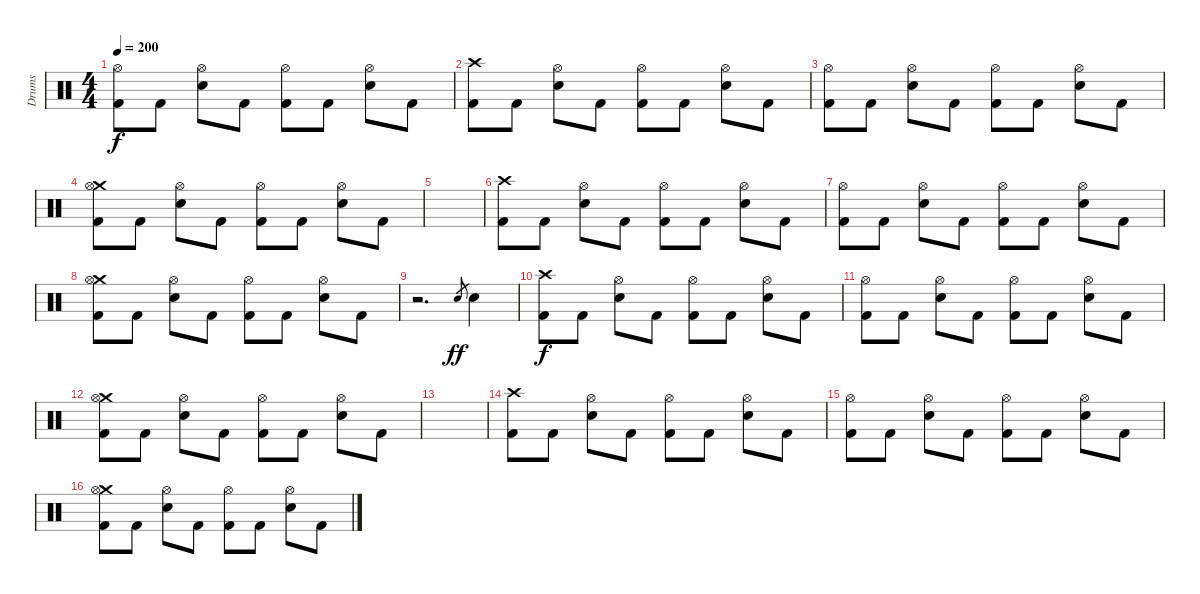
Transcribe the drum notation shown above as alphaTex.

\track ("Drums" "Drums") {instrument percussion}
\staff {score}
\articulation defaults
\ts (4 4)
\tempo 200
\clef neutral
\ks c
("Hi-Hat (open)" "Kick (hit) 2").8{dy f} "Kick (hit) 2".8 ("Hi-Hat (open)" "Snare (hit) 2").8 "Kick (hit) 2".8 ("Hi-Hat (open)" "Kick (hit) 2").8 "Kick (hit) 2".8 ("Hi-Hat (open)" "Snare (hit) 2").8 "Kick (hit) 2".8 |
("Crash high (hit)" "Kick (hit) 2").8 "Kick (hit) 2".8 ("Hi-Hat (open)" "Snare (hit) 2").8 "Kick (hit) 2".8 ("Hi-Hat (open)" "Kick (hit) 2").8 "Kick (hit) 2".8 ("Hi-Hat (open)" "Snare (hit) 2").8 "Kick (hit) 2".8 |
("Hi-Hat (open)" "Kick (hit) 2").8 "Kick (hit) 2".8 ("Hi-Hat (open)" "Snare (hit) 2").8 "Kick (hit) 2".8 ("Hi-Hat (open)" "Kick (hit) 2").8 "Kick (hit) 2".8 ("Hi-Hat (open)" "Snare (hit) 2").8 "Kick (hit) 2".8 |
("Crash medium (hit)" "Hi-Hat (open)" "Kick (hit) 2").8 "Kick (hit) 2".8 ("Hi-Hat (open)" "Snare (hit) 2").8 "Kick (hit) 2".8 ("Hi-Hat (open)" "Kick (hit) 2").8 "Kick (hit) 2".8 ("Hi-Hat (open)" "Snare (hit) 2").8 "Kick (hit) 2".8 |
|
("Crash high (hit)" "Kick (hit) 2").8 "Kick (hit) 2".8 ("Hi-Hat (open)" "Snare (hit) 2").8 "Kick (hit) 2".8 ("Hi-Hat (open)" "Kick (hit) 2").8 "Kick (hit) 2".8 ("Hi-Hat (open)" "Snare (hit) 2").8 "Kick (hit) 2".8 |
("Hi-Hat (open)" "Kick (hit) 2").8 "Kick (hit) 2".8 ("Hi-Hat (open)" "Snare (hit) 2").8 "Kick (hit) 2".8 ("Hi-Hat (open)" "Kick (hit) 2").8 "Kick (hit) 2".8 ("Hi-Hat (open)" "Snare (hit) 2").8 "Kick (hit) 2".8 |
("Crash medium (hit)" "Hi-Hat (open)" "Kick (hit) 2").8 "Kick (hit) 2".8 ("Hi-Hat (open)" "Snare (hit) 2").8 "Kick (hit) 2".8 ("Hi-Hat (open)" "Kick (hit) 2").8 "Kick (hit) 2".8 ("Hi-Hat (open)" "Snare (hit) 2").8 "Kick (hit) 2".8 |
r.2{d} "Snare (hit) 2".8{gr dy ff} "Snare (hit) 2".4 |
("Crash high (hit)" "Kick (hit) 2").8{dy f} "Kick (hit) 2".8 ("Hi-Hat (open)" "Snare (hit) 2").8 "Kick (hit) 2".8 ("Hi-Hat (open)" "Kick (hit) 2").8 "Kick (hit) 2".8 ("Hi-Hat (open)" "Snare (hit) 2").8 "Kick (hit) 2".8 |
("Hi-Hat (open)" "Kick (hit) 2").8 "Kick (hit) 2".8 ("Hi-Hat (open)" "Snare (hit) 2").8 "Kick (hit) 2".8 ("Hi-Hat (open)" "Kick (hit) 2").8 "Kick (hit) 2".8 ("Hi-Hat (open)" "Snare (hit) 2").8 "Kick (hit) 2".8 |
("Crash medium (hit)" "Hi-Hat (open)" "Kick (hit) 2").8 "Kick (hit) 2".8 ("Hi-Hat (open)" "Snare (hit) 2").8 "Kick (hit) 2".8 ("Hi-Hat (open)" "Kick (hit) 2").8 "Kick (hit) 2".8 ("Hi-Hat (open)" "Snare (hit) 2").8 "Kick (hit) 2".8 |
|
("Crash high (hit)" "Kick (hit) 2").8 "Kick (hit) 2".8 ("Hi-Hat (open)" "Snare (hit) 2").8 "Kick (hit) 2".8 ("Hi-Hat (open)" "Kick (hit) 2").8 "Kick (hit) 2".8 ("Hi-Hat (open)" "Snare (hit) 2").8 "Kick (hit) 2".8 |
("Hi-Hat (open)" "Kick (hit) 2").8 "Kick (hit) 2".8 ("Hi-Hat (open)" "Snare (hit) 2").8 "Kick (hit) 2".8 ("Hi-Hat (open)" "Kick (hit) 2").8 "Kick (hit) 2".8 ("Hi-Hat (open)" "Snare (hit) 2").8 "Kick (hit) 2".8 |
("Crash medium (hit)" "Hi-Hat (open)" "Kick (hit) 2").8 "Kick (hit) 2".8 ("Hi-Hat (open)" "Snare (hit) 2").8 "Kick (hit) 2".8 ("Hi-Hat (open)" "Kick (hit) 2").8 "Kick (hit) 2".8 ("Hi-Hat (open)" "Snare (hit) 2").8 "Kick (hit) 2".8
